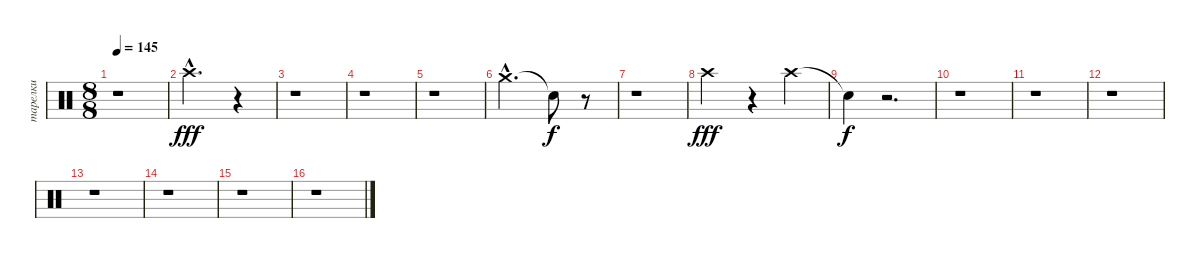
\track ("тарелки" "тарелки") {instrument percussion}
\staff {score}
\articulation defaults
\ts (8 8)
\tempo 145
\clef neutral
\ks c
r.1{dy fff} |
"Crash high (hit)"{hac}.2{d} r.4 |
r.1 |
r.1 |
r.1 |
"Crash medium (hit)"{hac}.2{d} "Snare (hit)"{t}.8{dy f} r.8 |
r.1 |
"Crash high (hit)".2{dy fff} r.4 "Crash high (hit)".4 |
"Snare (hit)"{t}.4{dy f} r.2{d} |
r.1 |
r.1 |
r.1 |
r.1 |
r.1 |
r.1 |
r.1
